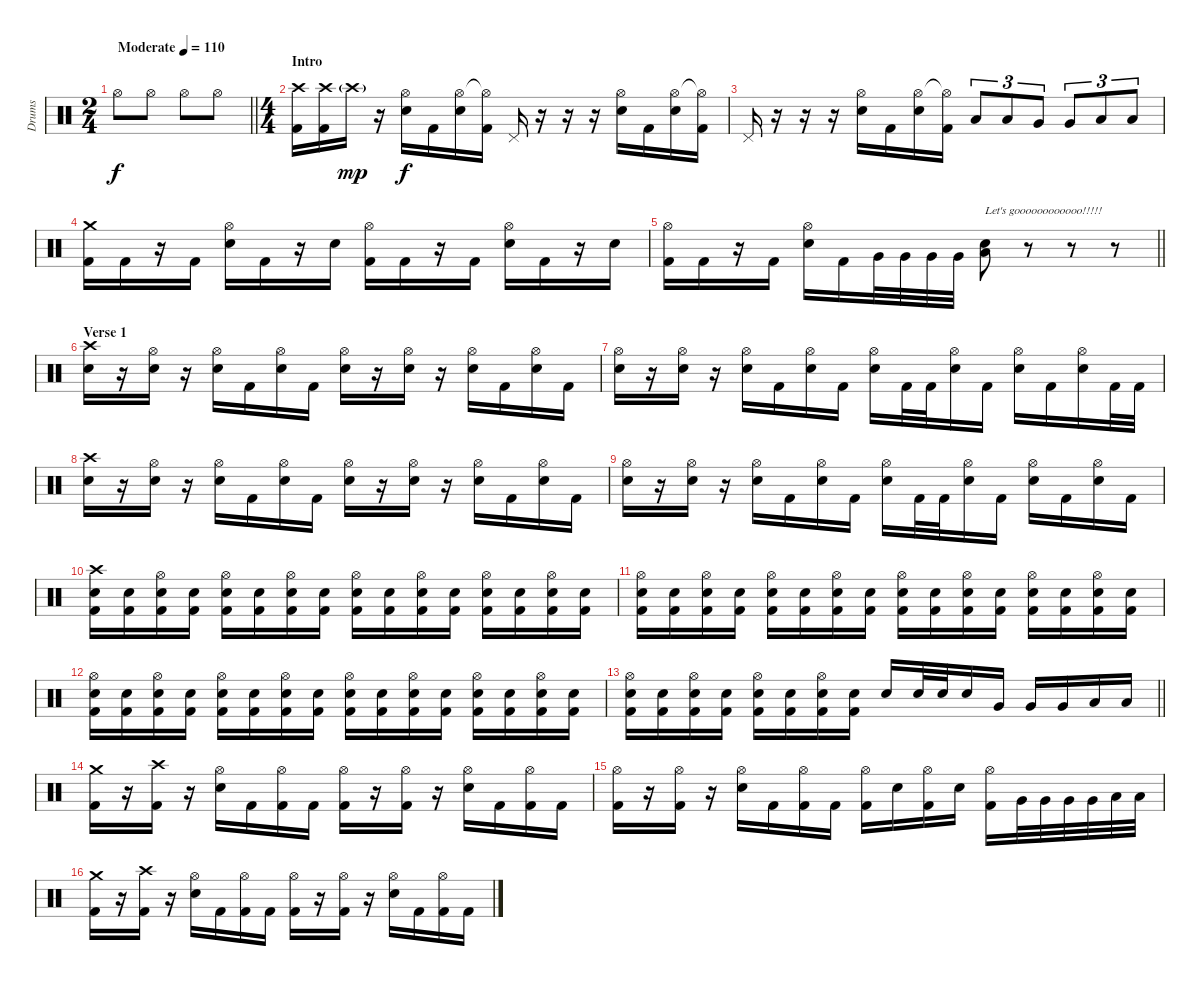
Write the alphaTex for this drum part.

\track ("Drums" "Drums") {instrument percussion}
\staff {score}
\articulation defaults
\ts (2 4)
\tempo (110 "Moderate")
\clef neutral
\barLineRight lightlight
\ks c "Hi-Hat (open)".8{dy f} "Hi-Hat (open)".8 "Hi-Hat (open)".8 "Hi-Hat (open)".8
|
\ts (4 4)
\section ("" "Intro")
("Crash high (hit)" "Kick (hit) 2").16 ("Crash high (hit)" "Kick (hit) 2").16 "Crash high (hit)"{g}.16{dy mp} r.16 ("Hi-Hat (open)" "Electric Snare (hit)").16{dy f} "Kick (hit) 2".16 ("Hi-Hat (open)" "Electric Snare (hit)").16 ("Hi-Hat (open)"{t} "Kick (hit) 2").16 "Pedal Hi-Hat (hit)".16 r.16 r.16 r.16 ("Hi-Hat (open)" "Electric Snare (hit)").16 "Kick (hit) 2".16 ("Hi-Hat (open)" "Electric Snare (hit)").16 ("Hi-Hat (open)"{t} "Kick (hit) 2").16 |
"Pedal Hi-Hat (hit)".16 r.16 r.16 r.16 ("Hi-Hat (open)" "Electric Snare (hit)").16 "Kick (hit) 2".16 ("Hi-Hat (open)" "Electric Snare (hit)").16 ("Hi-Hat (open)"{t} "Kick (hit) 2").16 "Low Tom (hit)".8{tu (3 2)} "Low Tom (hit)".8{tu (3 2)} "Very Low Tom (hit)".8{tu (3 2)} "Very Low Tom (hit)".8{tu (3 2)} "Low Floor Tom (hit)".8{tu (3 2)} "Low Floor Tom (hit)".8{tu (3 2)} |
("Crash medium (hit)" "Kick (hit) 2").16 "Kick (hit) 2".16 r.16 "Kick (hit) 2".16 ("Hi-Hat (open)" "Electric Snare (hit)").16 "Kick (hit) 2".16 r.16 "Electric Snare (hit)".16 ("Hi-Hat (open)" "Kick (hit) 2").16 "Kick (hit) 2".16 r.16 "Kick (hit) 2".16 ("Hi-Hat (open)" "Electric Snare (hit)").16 "Kick (hit) 2".16 r.16 "Electric Snare (hit)".16 |
\barLineRight lightlight
("Hi-Hat (open)" "Kick (hit) 2").16 "Kick (hit) 2".16 r.16 "Kick (hit) 2".16 ("Hi-Hat (open)" "Electric Snare (hit)").16 "Kick (hit) 2".16 "Very Low Tom (hit)".32 "Very Low Tom (hit)".32 "Very Low Tom (hit)".32 "Very Low Tom (hit)".32 ("Low Floor Tom (hit)" "Electric Snare (hit)").8{txt "Let's goooooooooooo!!!!!"} r.8 r.8 r.8 |
\section ("" "Verse 1")
("Crash high (hit)" "Electric Snare (hit)").16 r.16 ("Hi-Hat (open)" "Electric Snare (hit)").16 r.16 ("Hi-Hat (open)" "Electric Snare (hit)").16 "Kick (hit) 2".16 ("Hi-Hat (open)" "Electric Snare (hit)").16 "Kick (hit) 2".16 ("Hi-Hat (open)" "Electric Snare (hit)").16 r.16 ("Hi-Hat (open)" "Electric Snare (hit)").16 r.16 ("Hi-Hat (open)" "Electric Snare (hit)").16 "Kick (hit) 2".16 ("Hi-Hat (open)" "Electric Snare (hit)").16 "Kick (hit) 2".16 |
("Hi-Hat (open)" "Electric Snare (hit)").16 r.16 ("Hi-Hat (open)" "Electric Snare (hit)").16 r.16 ("Hi-Hat (open)" "Electric Snare (hit)").16 "Kick (hit) 2".16 ("Hi-Hat (open)" "Electric Snare (hit)").16 "Kick (hit) 2".16 ("Hi-Hat (open)" "Electric Snare (hit)").16 "Kick (hit) 2".32 "Kick (hit) 2".32 ("Hi-Hat (open)" "Electric Snare (hit)").16 "Kick (hit) 2".16 ("Hi-Hat (open)" "Electric Snare (hit)").16 "Kick (hit) 2".16 ("Hi-Hat (open)" "Electric Snare (hit)").16 "Kick (hit) 2".32 "Kick (hit) 2".32 |
("Crash high (hit)" "Electric Snare (hit)").16 r.16 ("Hi-Hat (open)" "Electric Snare (hit)").16 r.16 ("Hi-Hat (open)" "Electric Snare (hit)").16 "Kick (hit) 2".16 ("Hi-Hat (open)" "Electric Snare (hit)").16 "Kick (hit) 2".16 ("Hi-Hat (open)" "Electric Snare (hit)").16 r.16 ("Hi-Hat (open)" "Electric Snare (hit)").16 r.16 ("Hi-Hat (open)" "Electric Snare (hit)").16 "Kick (hit) 2".16 ("Hi-Hat (open)" "Electric Snare (hit)").16 "Kick (hit) 2".16 |
("Hi-Hat (open)" "Electric Snare (hit)").16 r.16 ("Hi-Hat (open)" "Electric Snare (hit)").16 r.16 ("Hi-Hat (open)" "Electric Snare (hit)").16 "Kick (hit) 2".16 ("Hi-Hat (open)" "Electric Snare (hit)").16 "Kick (hit) 2".16 ("Hi-Hat (open)" "Electric Snare (hit)").16 "Kick (hit) 2".32 "Kick (hit) 2".32 ("Hi-Hat (open)" "Electric Snare (hit)").16 "Kick (hit) 2".16 ("Hi-Hat (open)" "Electric Snare (hit)").16 "Kick (hit) 2".16 ("Hi-Hat (open)" "Electric Snare (hit)").16 "Kick (hit) 2".16 |
("Crash high (hit)" "Electric Snare (hit)" "Kick (hit) 2").16 ("Electric Snare (hit)" "Kick (hit) 2").16 ("Hi-Hat (open)" "Electric Snare (hit)" "Kick (hit) 2").16 ("Electric Snare (hit)" "Kick (hit) 2").16 ("Hi-Hat (open)" "Electric Snare (hit)" "Kick (hit) 2").16 ("Electric Snare (hit)" "Kick (hit) 2").16 ("Hi-Hat (open)" "Electric Snare (hit)" "Kick (hit) 2").16 ("Electric Snare (hit)" "Kick (hit) 2").16 ("Hi-Hat (open)" "Electric Snare (hit)" "Kick (hit) 2").16 ("Electric Snare (hit)" "Kick (hit) 2").16 ("Hi-Hat (open)" "Electric Snare (hit)" "Kick (hit) 2").16 ("Electric Snare (hit)" "Kick (hit) 2").16 ("Hi-Hat (open)" "Electric Snare (hit)" "Kick (hit) 2").16 ("Electric Snare (hit)" "Kick (hit) 2").16 ("Hi-Hat (open)" "Electric Snare (hit)" "Kick (hit) 2").16 ("Electric Snare (hit)" "Kick (hit) 2").16 |
("Hi-Hat (open)" "Electric Snare (hit)" "Kick (hit) 2").16 ("Electric Snare (hit)" "Kick (hit) 2").16 ("Hi-Hat (open)" "Electric Snare (hit)" "Kick (hit) 2").16 ("Electric Snare (hit)" "Kick (hit) 2").16 ("Hi-Hat (open)" "Electric Snare (hit)" "Kick (hit) 2").16 ("Electric Snare (hit)" "Kick (hit) 2").16 ("Hi-Hat (open)" "Electric Snare (hit)" "Kick (hit) 2").16 ("Electric Snare (hit)" "Kick (hit) 2").16 ("Hi-Hat (open)" "Electric Snare (hit)" "Kick (hit) 2").16 ("Electric Snare (hit)" "Kick (hit) 2").16 ("Hi-Hat (open)" "Electric Snare (hit)" "Kick (hit) 2").16 ("Electric Snare (hit)" "Kick (hit) 2").16 ("Hi-Hat (open)" "Electric Snare (hit)" "Kick (hit) 2").16 ("Electric Snare (hit)" "Kick (hit) 2").16 ("Hi-Hat (open)" "Electric Snare (hit)" "Kick (hit) 2").16 ("Electric Snare (hit)" "Kick (hit) 2").16 |
("Hi-Hat (open)" "Electric Snare (hit)" "Kick (hit) 2").16 ("Electric Snare (hit)" "Kick (hit) 2").16 ("Hi-Hat (open)" "Electric Snare (hit)" "Kick (hit) 2").16 ("Electric Snare (hit)" "Kick (hit) 2").16 ("Hi-Hat (open)" "Electric Snare (hit)" "Kick (hit) 2").16 ("Electric Snare (hit)" "Kick (hit) 2").16 ("Hi-Hat (open)" "Electric Snare (hit)" "Kick (hit) 2").16 ("Electric Snare (hit)" "Kick (hit) 2").16 ("Hi-Hat (open)" "Electric Snare (hit)" "Kick (hit) 2").16 ("Electric Snare (hit)" "Kick (hit) 2").16 ("Hi-Hat (open)" "Electric Snare (hit)" "Kick (hit) 2").16 ("Electric Snare (hit)" "Kick (hit) 2").16 ("Hi-Hat (open)" "Electric Snare (hit)" "Kick (hit) 2").16 ("Electric Snare (hit)" "Kick (hit) 2").16 ("Hi-Hat (open)" "Electric Snare (hit)" "Kick (hit) 2").16 ("Electric Snare (hit)" "Kick (hit) 2").16 |
\barLineRight lightlight
("Hi-Hat (open)" "Electric Snare (hit)" "Kick (hit) 2").16 ("Electric Snare (hit)" "Kick (hit) 2").16 ("Hi-Hat (open)" "Electric Snare (hit)" "Kick (hit) 2").16 ("Electric Snare (hit)" "Kick (hit) 2").16 ("Hi-Hat (open)" "Electric Snare (hit)" "Kick (hit) 2").16 ("Electric Snare (hit)" "Kick (hit) 2").16 ("Hi-Hat (open)" "Electric Snare (hit)" "Kick (hit) 2").16 ("Electric Snare (hit)" "Kick (hit) 2").16 "Electric Snare (hit)".16 "Electric Snare (hit)".32 "Electric Snare (hit)".32 "Electric Snare (hit)".16 "Very Low Tom (hit)".16 "Very Low Tom (hit)".16 "Very Low Tom (hit)".16 "Low Floor Tom (hit)".16 "Low Floor Tom (hit)".16 |
("Crash medium (hit)" "Kick (hit) 2").16 r.16 ("Crash high (hit)" "Kick (hit) 2").16 r.16 ("Hi-Hat (open)" "Electric Snare (hit)").16 "Kick (hit) 2".16 ("Hi-Hat (open)" "Kick (hit) 2").16 "Kick (hit) 2".16 ("Hi-Hat (open)" "Kick (hit) 2").16 r.16 ("Hi-Hat (open)" "Kick (hit) 2").16 r.16 ("Hi-Hat (open)" "Electric Snare (hit)").16 "Kick (hit) 2".16 ("Hi-Hat (open)" "Kick (hit) 2").16 "Kick (hit) 2".16 |
("Hi-Hat (open)" "Kick (hit) 2").16 r.16 ("Hi-Hat (open)" "Kick (hit) 2").16 r.16 ("Hi-Hat (open)" "Electric Snare (hit)").16 "Kick (hit) 2".16 ("Hi-Hat (open)" "Kick (hit) 2").16 "Kick (hit) 2".16 ("Hi-Hat (open)" "Kick (hit) 2").16 "Electric Snare (hit)".16 ("Hi-Hat (open)" "Kick (hit) 2").16 "Electric Snare (hit)".16 ("Hi-Hat (open)" "Kick (hit) 2").16 "Very Low Tom (hit)".32 "Very Low Tom (hit)".32 "Very Low Tom (hit)".32 "Very Low Tom (hit)".32 "Low Floor Tom (hit)".32 "Low Floor Tom (hit)".32 |
("Crash medium (hit)" "Kick (hit) 2").16 r.16 ("Crash high (hit)" "Kick (hit) 2").16 r.16 ("Hi-Hat (open)" "Electric Snare (hit)").16 "Kick (hit) 2".16 ("Hi-Hat (open)" "Kick (hit) 2").16 "Kick (hit) 2".16 ("Hi-Hat (open)" "Kick (hit) 2").16 r.16 ("Hi-Hat (open)" "Kick (hit) 2").16 r.16 ("Hi-Hat (open)" "Electric Snare (hit)").16 "Kick (hit) 2".16 ("Hi-Hat (open)" "Kick (hit) 2").16 "Kick (hit) 2".16
